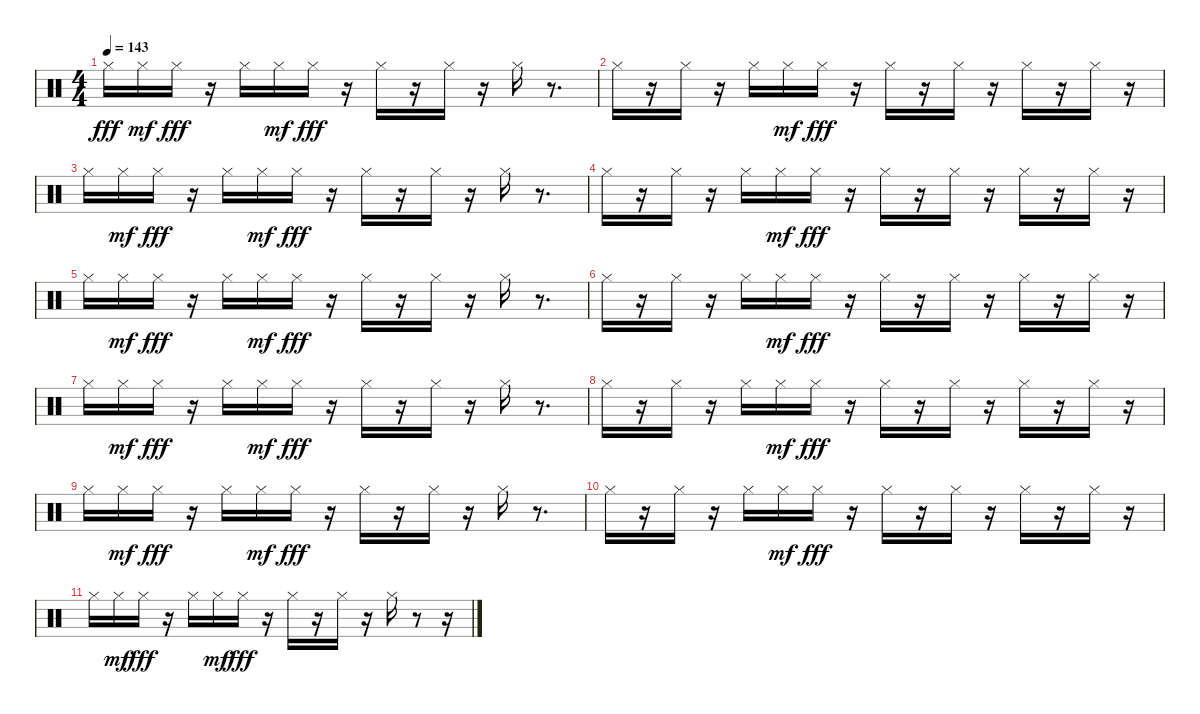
\track "" {instrument percussion}
\staff {score}
\articulation defaults
\ts (4 4)
\tempo 143
\clef neutral
\ks c "Hi-Hat (closed)".16{dy fff} "Hi-Hat (closed)".16{dy mf} "Hi-Hat (closed)".16{dy fff}
r.16 "Hi-Hat (closed)".16 "Hi-Hat (closed)".16{dy mf} "Hi-Hat (closed)".16{dy fff} r.16 "Hi-Hat (closed)".16 r.16 "Hi-Hat (closed)".16 r.16 "Hi-Hat (closed)".16 r.8{d} |
"Hi-Hat (closed)".16 r.16 "Hi-Hat (closed)".16 r.16 "Hi-Hat (closed)".16 "Hi-Hat (closed)".16{dy mf} "Hi-Hat (closed)".16{dy fff} r.16 "Hi-Hat (closed)".16 r.16 "Hi-Hat (closed)".16 r.16 "Hi-Hat (closed)".16 r.16 "Hi-Hat (closed)".16 r.16 |
"Hi-Hat (closed)".16 "Hi-Hat (closed)".16{dy mf} "Hi-Hat (closed)".16{dy fff} r.16 "Hi-Hat (closed)".16 "Hi-Hat (closed)".16{dy mf} "Hi-Hat (closed)".16{dy fff} r.16 "Hi-Hat (closed)".16 r.16 "Hi-Hat (closed)".16 r.16 "Hi-Hat (closed)".16 r.8{d} |
"Hi-Hat (closed)".16 r.16 "Hi-Hat (closed)".16 r.16 "Hi-Hat (closed)".16 "Hi-Hat (closed)".16{dy mf} "Hi-Hat (closed)".16{dy fff} r.16 "Hi-Hat (closed)".16 r.16 "Hi-Hat (closed)".16 r.16 "Hi-Hat (closed)".16 r.16 "Hi-Hat (closed)".16 r.16 |
"Hi-Hat (closed)".16 "Hi-Hat (closed)".16{dy mf} "Hi-Hat (closed)".16{dy fff} r.16 "Hi-Hat (closed)".16 "Hi-Hat (closed)".16{dy mf} "Hi-Hat (closed)".16{dy fff} r.16 "Hi-Hat (closed)".16 r.16 "Hi-Hat (closed)".16 r.16 "Hi-Hat (closed)".16 r.8{d} |
"Hi-Hat (closed)".16 r.16 "Hi-Hat (closed)".16 r.16 "Hi-Hat (closed)".16 "Hi-Hat (closed)".16{dy mf} "Hi-Hat (closed)".16{dy fff} r.16 "Hi-Hat (closed)".16 r.16 "Hi-Hat (closed)".16 r.16 "Hi-Hat (closed)".16 r.16 "Hi-Hat (closed)".16 r.16 |
"Hi-Hat (closed)".16 "Hi-Hat (closed)".16{dy mf} "Hi-Hat (closed)".16{dy fff} r.16 "Hi-Hat (closed)".16 "Hi-Hat (closed)".16{dy mf} "Hi-Hat (closed)".16{dy fff} r.16 "Hi-Hat (closed)".16 r.16 "Hi-Hat (closed)".16 r.16 "Hi-Hat (closed)".16 r.8{d} |
"Hi-Hat (closed)".16 r.16 "Hi-Hat (closed)".16 r.16 "Hi-Hat (closed)".16 "Hi-Hat (closed)".16{dy mf} "Hi-Hat (closed)".16{dy fff} r.16 "Hi-Hat (closed)".16 r.16 "Hi-Hat (closed)".16 r.16 "Hi-Hat (closed)".16 r.16 "Hi-Hat (closed)".16 r.16 |
"Hi-Hat (closed)".16 "Hi-Hat (closed)".16{dy mf} "Hi-Hat (closed)".16{dy fff} r.16 "Hi-Hat (closed)".16 "Hi-Hat (closed)".16{dy mf} "Hi-Hat (closed)".16{dy fff} r.16 "Hi-Hat (closed)".16 r.16 "Hi-Hat (closed)".16 r.16 "Hi-Hat (closed)".16 r.8{d} |
"Hi-Hat (closed)".16 r.16 "Hi-Hat (closed)".16 r.16 "Hi-Hat (closed)".16 "Hi-Hat (closed)".16{dy mf} "Hi-Hat (closed)".16{dy fff} r.16 "Hi-Hat (closed)".16 r.16 "Hi-Hat (closed)".16 r.16 "Hi-Hat (closed)".16 r.16 "Hi-Hat (closed)".16 r.16 |
"Hi-Hat (closed)".16 "Hi-Hat (closed)".16{dy mf} "Hi-Hat (closed)".16{dy fff} r.16 "Hi-Hat (closed)".16 "Hi-Hat (closed)".16{dy mf} "Hi-Hat (closed)".16{dy fff} r.16 "Hi-Hat (closed)".16 r.16 "Hi-Hat (closed)".16 r.16 "Hi-Hat (closed)".16 r.8 r.16
